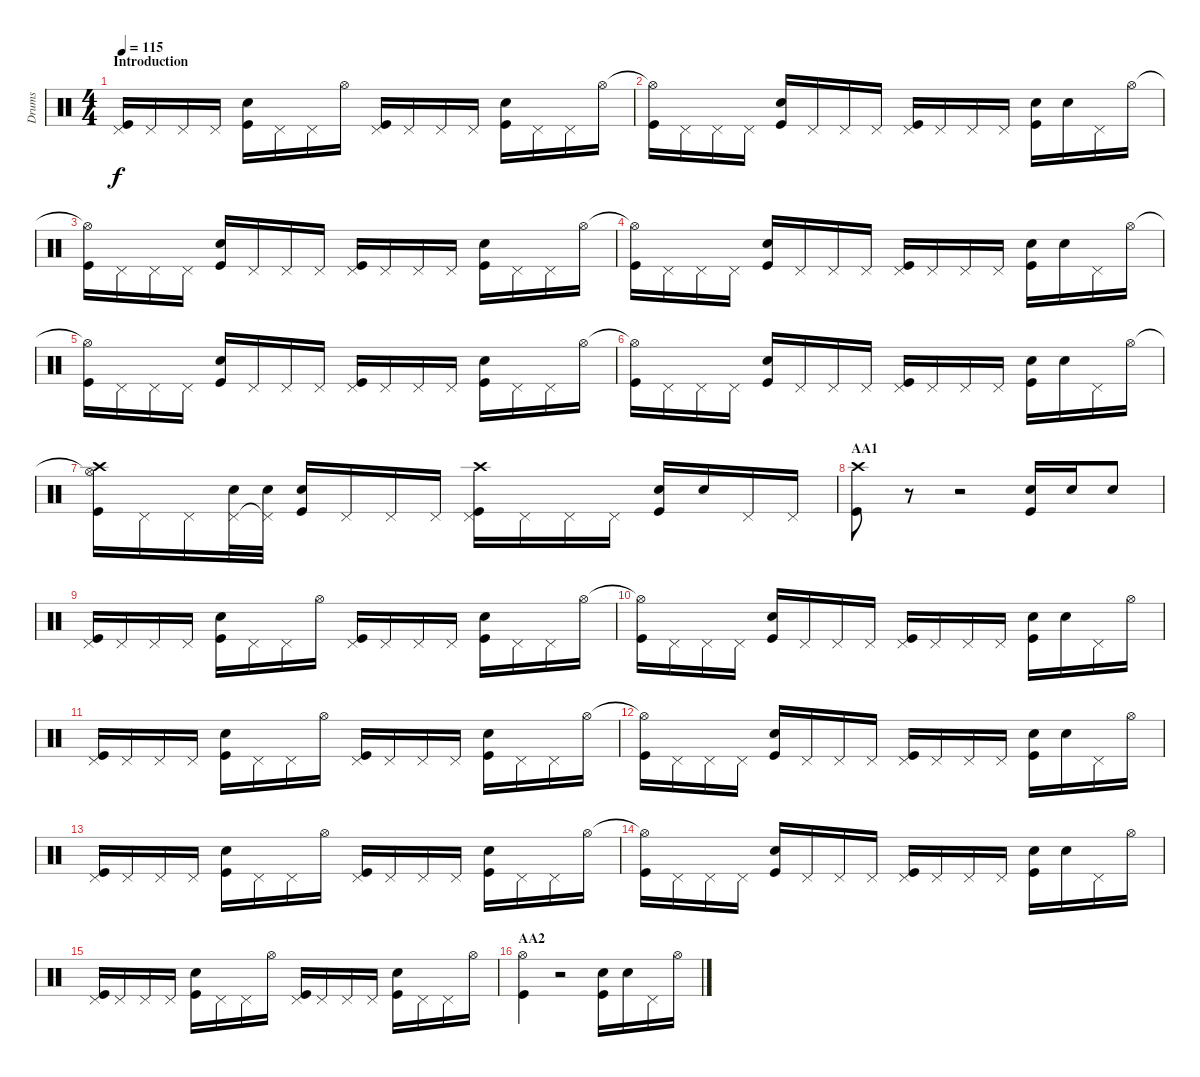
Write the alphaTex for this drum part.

\track ("Drums" "Drums") {instrument percussion}
\staff {score}
\articulation defaults
\ts (4 4)
\section ("" "Introduction")
\tempo 115
\clef neutral
\ks c
("Pedal Hi-Hat (hit)" "Kick (hit)").16{dy f} "Pedal Hi-Hat (hit)".16 "Pedal Hi-Hat (hit)".16 "Pedal Hi-Hat (hit)".16 ("Snare (hit) 2" "Kick (hit)").16 "Pedal Hi-Hat (hit)".16 "Pedal Hi-Hat (hit)".16 "Hi-Hat (open)".16 ("Pedal Hi-Hat (hit)" "Kick (hit)").16 "Pedal Hi-Hat (hit)".16 "Pedal Hi-Hat (hit)".16 "Pedal Hi-Hat (hit)".16 ("Snare (hit) 2" "Kick (hit)").16 "Pedal Hi-Hat (hit)".16 "Pedal Hi-Hat (hit)".16 "Hi-Hat (open)".16 |
("Hi-Hat (open)"{t} "Kick (hit)").16 "Pedal Hi-Hat (hit)".16 "Pedal Hi-Hat (hit)".16 "Pedal Hi-Hat (hit)".16 ("Snare (hit) 2" "Kick (hit)").16 "Pedal Hi-Hat (hit)".16 "Pedal Hi-Hat (hit)".16 "Pedal Hi-Hat (hit)".16 ("Pedal Hi-Hat (hit)" "Kick (hit)").16 "Pedal Hi-Hat (hit)".16 "Pedal Hi-Hat (hit)".16 "Pedal Hi-Hat (hit)".16 ("Snare (hit) 2" "Kick (hit)").16 "Snare (hit) 2".16 "Pedal Hi-Hat (hit)".16 "Hi-Hat (open)".16 |
("Hi-Hat (open)"{t} "Kick (hit)").16 "Pedal Hi-Hat (hit)".16 "Pedal Hi-Hat (hit)".16 "Pedal Hi-Hat (hit)".16 ("Snare (hit) 2" "Kick (hit)").16 "Pedal Hi-Hat (hit)".16 "Pedal Hi-Hat (hit)".16 "Pedal Hi-Hat (hit)".16 ("Pedal Hi-Hat (hit)" "Kick (hit)").16 "Pedal Hi-Hat (hit)".16 "Pedal Hi-Hat (hit)".16 "Pedal Hi-Hat (hit)".16 ("Snare (hit) 2" "Kick (hit)").16 "Pedal Hi-Hat (hit)".16 "Pedal Hi-Hat (hit)".16 "Hi-Hat (open)".16 |
("Hi-Hat (open)"{t} "Kick (hit)").16 "Pedal Hi-Hat (hit)".16 "Pedal Hi-Hat (hit)".16 "Pedal Hi-Hat (hit)".16 ("Snare (hit) 2" "Kick (hit)").16 "Pedal Hi-Hat (hit)".16 "Pedal Hi-Hat (hit)".16 "Pedal Hi-Hat (hit)".16 ("Pedal Hi-Hat (hit)" "Kick (hit)").16 "Pedal Hi-Hat (hit)".16 "Pedal Hi-Hat (hit)".16 "Pedal Hi-Hat (hit)".16 ("Snare (hit) 2" "Kick (hit)").16 "Snare (hit) 2".16 "Pedal Hi-Hat (hit)".16 "Hi-Hat (open)".16 |
("Hi-Hat (open)"{t} "Kick (hit)").16 "Pedal Hi-Hat (hit)".16 "Pedal Hi-Hat (hit)".16 "Pedal Hi-Hat (hit)".16 ("Snare (hit) 2" "Kick (hit)").16 "Pedal Hi-Hat (hit)".16 "Pedal Hi-Hat (hit)".16 "Pedal Hi-Hat (hit)".16 ("Pedal Hi-Hat (hit)" "Kick (hit)").16 "Pedal Hi-Hat (hit)".16 "Pedal Hi-Hat (hit)".16 "Pedal Hi-Hat (hit)".16 ("Snare (hit) 2" "Kick (hit)").16 "Pedal Hi-Hat (hit)".16 "Pedal Hi-Hat (hit)".16 "Hi-Hat (open)".16 |
("Hi-Hat (open)"{t} "Kick (hit)").16 "Pedal Hi-Hat (hit)".16 "Pedal Hi-Hat (hit)".16 "Pedal Hi-Hat (hit)".16 ("Snare (hit) 2" "Kick (hit)").16 "Pedal Hi-Hat (hit)".16 "Pedal Hi-Hat (hit)".16 "Pedal Hi-Hat (hit)".16 ("Pedal Hi-Hat (hit)" "Kick (hit)").16 "Pedal Hi-Hat (hit)".16 "Pedal Hi-Hat (hit)".16 "Pedal Hi-Hat (hit)".16 ("Snare (hit) 2" "Kick (hit)").16 "Snare (hit) 2".16 "Pedal Hi-Hat (hit)".16 "Hi-Hat (open)".16 |
("Hi-Hat (open)"{t} "Crash high (hit)" "Kick (hit)").16 "Pedal Hi-Hat (hit)".16 "Pedal Hi-Hat (hit)".16 ("Pedal Hi-Hat (hit)" "Snare (hit) 2").32 ("Pedal Hi-Hat (hit)"{t} "Snare (hit) 2").32 ("Snare (hit) 2" "Kick (hit)").16 "Pedal Hi-Hat (hit)".16 "Pedal Hi-Hat (hit)".16 "Pedal Hi-Hat (hit)".16 ("Pedal Hi-Hat (hit)" "Crash high (hit)" "Kick (hit)").16 "Pedal Hi-Hat (hit)".16 "Pedal Hi-Hat (hit)".16 "Pedal Hi-Hat (hit)".16 ("Snare (hit) 2" "Kick (hit)").16 "Snare (hit) 2".16 "Pedal Hi-Hat (hit)".16 "Pedal Hi-Hat (hit)".16 |
\section ("" "АА1")
("Crash high (hit)" "Kick (hit)").8 r.8 r.2 ("Snare (hit) 2" "Kick (hit)").16 "Snare (hit) 2".16 "Snare (hit) 2".8 |
("Pedal Hi-Hat (hit)" "Kick (hit)").16 "Pedal Hi-Hat (hit)".16 "Pedal Hi-Hat (hit)".16 "Pedal Hi-Hat (hit)".16 ("Snare (hit) 2" "Kick (hit)").16 "Pedal Hi-Hat (hit)".16 "Pedal Hi-Hat (hit)".16 "Hi-Hat (open)".16 ("Pedal Hi-Hat (hit)" "Kick (hit)").16 "Pedal Hi-Hat (hit)".16 "Pedal Hi-Hat (hit)".16 "Pedal Hi-Hat (hit)".16 ("Snare (hit) 2" "Kick (hit)").16 "Pedal Hi-Hat (hit)".16 "Pedal Hi-Hat (hit)".16 "Hi-Hat (open)".16 |
("Hi-Hat (open)"{t} "Kick (hit)").16 "Pedal Hi-Hat (hit)".16 "Pedal Hi-Hat (hit)".16 "Pedal Hi-Hat (hit)".16 ("Snare (hit) 2" "Kick (hit)").16 "Pedal Hi-Hat (hit)".16 "Pedal Hi-Hat (hit)".16 "Pedal Hi-Hat (hit)".16 ("Pedal Hi-Hat (hit)" "Kick (hit)").16 "Pedal Hi-Hat (hit)".16 "Pedal Hi-Hat (hit)".16 "Pedal Hi-Hat (hit)".16 ("Snare (hit) 2" "Kick (hit)").16 "Snare (hit) 2".16 "Pedal Hi-Hat (hit)".16 "Hi-Hat (open)".16 |
("Pedal Hi-Hat (hit)" "Kick (hit)").16 "Pedal Hi-Hat (hit)".16 "Pedal Hi-Hat (hit)".16 "Pedal Hi-Hat (hit)".16 ("Snare (hit) 2" "Kick (hit)").16 "Pedal Hi-Hat (hit)".16 "Pedal Hi-Hat (hit)".16 "Hi-Hat (open)".16 ("Pedal Hi-Hat (hit)" "Kick (hit)").16 "Pedal Hi-Hat (hit)".16 "Pedal Hi-Hat (hit)".16 "Pedal Hi-Hat (hit)".16 ("Snare (hit) 2" "Kick (hit)").16 "Pedal Hi-Hat (hit)".16 "Pedal Hi-Hat (hit)".16 "Hi-Hat (open)".16 |
("Hi-Hat (open)"{t} "Kick (hit)").16 "Pedal Hi-Hat (hit)".16 "Pedal Hi-Hat (hit)".16 "Pedal Hi-Hat (hit)".16 ("Snare (hit) 2" "Kick (hit)").16 "Pedal Hi-Hat (hit)".16 "Pedal Hi-Hat (hit)".16 "Pedal Hi-Hat (hit)".16 ("Pedal Hi-Hat (hit)" "Kick (hit)").16 "Pedal Hi-Hat (hit)".16 "Pedal Hi-Hat (hit)".16 "Pedal Hi-Hat (hit)".16 ("Snare (hit) 2" "Kick (hit)").16 "Snare (hit) 2".16 "Pedal Hi-Hat (hit)".16 "Hi-Hat (open)".16 |
("Pedal Hi-Hat (hit)" "Kick (hit)").16 "Pedal Hi-Hat (hit)".16 "Pedal Hi-Hat (hit)".16 "Pedal Hi-Hat (hit)".16 ("Snare (hit) 2" "Kick (hit)").16 "Pedal Hi-Hat (hit)".16 "Pedal Hi-Hat (hit)".16 "Hi-Hat (open)".16 ("Pedal Hi-Hat (hit)" "Kick (hit)").16 "Pedal Hi-Hat (hit)".16 "Pedal Hi-Hat (hit)".16 "Pedal Hi-Hat (hit)".16 ("Snare (hit) 2" "Kick (hit)").16 "Pedal Hi-Hat (hit)".16 "Pedal Hi-Hat (hit)".16 "Hi-Hat (open)".16 |
("Hi-Hat (open)"{t} "Kick (hit)").16 "Pedal Hi-Hat (hit)".16 "Pedal Hi-Hat (hit)".16 "Pedal Hi-Hat (hit)".16 ("Snare (hit) 2" "Kick (hit)").16 "Pedal Hi-Hat (hit)".16 "Pedal Hi-Hat (hit)".16 "Pedal Hi-Hat (hit)".16 ("Pedal Hi-Hat (hit)" "Kick (hit)").16 "Pedal Hi-Hat (hit)".16 "Pedal Hi-Hat (hit)".16 "Pedal Hi-Hat (hit)".16 ("Snare (hit) 2" "Kick (hit)").16 "Snare (hit) 2".16 "Pedal Hi-Hat (hit)".16 "Hi-Hat (open)".16 |
("Pedal Hi-Hat (hit)" "Kick (hit)").16 "Pedal Hi-Hat (hit)".16 "Pedal Hi-Hat (hit)".16 "Pedal Hi-Hat (hit)".16 ("Snare (hit) 2" "Kick (hit)").16 "Pedal Hi-Hat (hit)".16 "Pedal Hi-Hat (hit)".16 "Hi-Hat (open)".16 ("Pedal Hi-Hat (hit)" "Kick (hit)").16 "Pedal Hi-Hat (hit)".16 "Pedal Hi-Hat (hit)".16 "Pedal Hi-Hat (hit)".16 ("Snare (hit) 2" "Kick (hit)").16 "Pedal Hi-Hat (hit)".16 "Pedal Hi-Hat (hit)".16 "Hi-Hat (open)".16 |
\section ("" "АА2")
("Hi-Hat (open)" "Kick (hit)").4 r.2 ("Snare (hit) 2" "Kick (hit)").16 "Snare (hit) 2".16 "Pedal Hi-Hat (hit)".16 "Hi-Hat (open)".16
